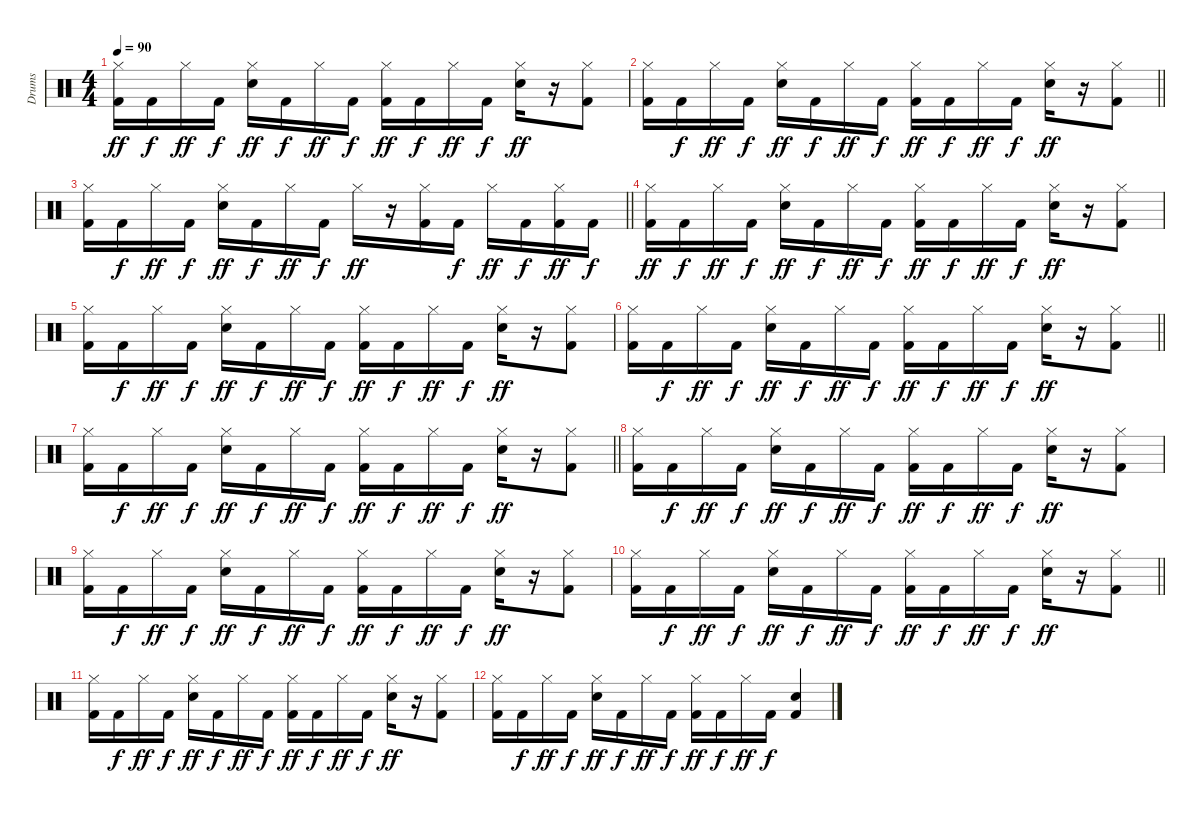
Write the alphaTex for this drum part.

\track ("Drums" "Drums") {instrument percussion}
\staff {score}
\articulation defaults
\ts (4 4)
\tempo 90
\clef neutral
\ks c
("Hi-Hat (closed)" "Kick (hit) 2").16{dy ff} "Kick (hit) 2".16{dy f} "Hi-Hat (closed)".16{dy ff} "Kick (hit) 2".16{dy f} ("Hi-Hat (closed)" "Electric Snare (hit)").16{dy ff} "Kick (hit) 2".16{dy f} "Hi-Hat (closed)".16{dy ff} "Kick (hit) 2".16{dy f} ("Hi-Hat (closed)" "Kick (hit) 2").16{dy ff} "Kick (hit) 2".16{dy f} "Hi-Hat (closed)".16{dy ff} "Kick (hit) 2".16{dy f} ("Hi-Hat (closed)" "Electric Snare (hit)").16{dy ff} r.16 ("Hi-Hat (closed)" "Kick (hit) 2").8 |
\barLineRight lightlight
("Hi-Hat (closed)" "Kick (hit) 2").16 "Kick (hit) 2".16{dy f} "Hi-Hat (closed)".16{dy ff} "Kick (hit) 2".16{dy f} ("Hi-Hat (closed)" "Electric Snare (hit)").16{dy ff} "Kick (hit) 2".16{dy f} "Hi-Hat (closed)".16{dy ff} "Kick (hit) 2".16{dy f} ("Hi-Hat (closed)" "Kick (hit) 2").16{dy ff} "Kick (hit) 2".16{dy f} "Hi-Hat (closed)".16{dy ff} "Kick (hit) 2".16{dy f} ("Hi-Hat (closed)" "Electric Snare (hit)").16{dy ff} r.16 ("Hi-Hat (closed)" "Kick (hit) 2").8 |
\barLineRight lightlight
("Hi-Hat (closed)" "Kick (hit) 2").16 "Kick (hit) 2".16{dy f} "Hi-Hat (closed)".16{dy ff} "Kick (hit) 2".16{dy f} ("Hi-Hat (closed)" "Electric Snare (hit)").16{dy ff} "Kick (hit) 2".16{dy f} "Hi-Hat (closed)".16{dy ff} "Kick (hit) 2".16{dy f} "Hi-Hat (closed)".16{dy ff} r.16 ("Hi-Hat (closed)" "Kick (hit) 2").16 "Kick (hit) 2".16{dy f} "Hi-Hat (closed)".16{dy ff} "Kick (hit) 2".16{dy f} ("Hi-Hat (closed)" "Kick (hit) 2").16{dy ff} "Kick (hit) 2".16{dy f} |
("Hi-Hat (closed)" "Kick (hit) 2").16{dy ff} "Kick (hit) 2".16{dy f} "Hi-Hat (closed)".16{dy ff} "Kick (hit) 2".16{dy f} ("Hi-Hat (closed)" "Electric Snare (hit)").16{dy ff} "Kick (hit) 2".16{dy f} "Hi-Hat (closed)".16{dy ff} "Kick (hit) 2".16{dy f} ("Hi-Hat (closed)" "Kick (hit) 2").16{dy ff} "Kick (hit) 2".16{dy f} "Hi-Hat (closed)".16{dy ff} "Kick (hit) 2".16{dy f} ("Hi-Hat (closed)" "Electric Snare (hit)").16{dy ff} r.16 ("Hi-Hat (closed)" "Kick (hit) 2").8 |
("Hi-Hat (closed)" "Kick (hit) 2").16 "Kick (hit) 2".16{dy f} "Hi-Hat (closed)".16{dy ff} "Kick (hit) 2".16{dy f} ("Hi-Hat (closed)" "Electric Snare (hit)").16{dy ff} "Kick (hit) 2".16{dy f} "Hi-Hat (closed)".16{dy ff} "Kick (hit) 2".16{dy f} ("Hi-Hat (closed)" "Kick (hit) 2").16{dy ff} "Kick (hit) 2".16{dy f} "Hi-Hat (closed)".16{dy ff} "Kick (hit) 2".16{dy f} ("Hi-Hat (closed)" "Electric Snare (hit)").16{dy ff} r.16 ("Hi-Hat (closed)" "Kick (hit) 2").8 |
\barLineRight lightlight
("Hi-Hat (closed)" "Kick (hit) 2").16 "Kick (hit) 2".16{dy f} "Hi-Hat (closed)".16{dy ff} "Kick (hit) 2".16{dy f} ("Hi-Hat (closed)" "Electric Snare (hit)").16{dy ff} "Kick (hit) 2".16{dy f} "Hi-Hat (closed)".16{dy ff} "Kick (hit) 2".16{dy f} ("Hi-Hat (closed)" "Kick (hit) 2").16{dy ff} "Kick (hit) 2".16{dy f} "Hi-Hat (closed)".16{dy ff} "Kick (hit) 2".16{dy f} ("Hi-Hat (closed)" "Electric Snare (hit)").16{dy ff} r.16 ("Hi-Hat (closed)" "Kick (hit) 2").8 |
\barLineRight lightlight
("Hi-Hat (closed)" "Kick (hit) 2").16 "Kick (hit) 2".16{dy f} "Hi-Hat (closed)".16{dy ff} "Kick (hit) 2".16{dy f} ("Hi-Hat (closed)" "Electric Snare (hit)").16{dy ff} "Kick (hit) 2".16{dy f} "Hi-Hat (closed)".16{dy ff} "Kick (hit) 2".16{dy f} ("Hi-Hat (closed)" "Kick (hit) 2").16{dy ff} "Kick (hit) 2".16{dy f} "Hi-Hat (closed)".16{dy ff} "Kick (hit) 2".16{dy f} ("Hi-Hat (closed)" "Electric Snare (hit)").16{dy ff} r.16 ("Hi-Hat (closed)" "Kick (hit) 2").8 |
("Hi-Hat (closed)" "Kick (hit) 2").16 "Kick (hit) 2".16{dy f} "Hi-Hat (closed)".16{dy ff} "Kick (hit) 2".16{dy f} ("Hi-Hat (closed)" "Electric Snare (hit)").16{dy ff} "Kick (hit) 2".16{dy f} "Hi-Hat (closed)".16{dy ff} "Kick (hit) 2".16{dy f} ("Hi-Hat (closed)" "Kick (hit) 2").16{dy ff} "Kick (hit) 2".16{dy f} "Hi-Hat (closed)".16{dy ff} "Kick (hit) 2".16{dy f} ("Hi-Hat (closed)" "Electric Snare (hit)").16{dy ff} r.16 ("Hi-Hat (closed)" "Kick (hit) 2").8 |
("Hi-Hat (closed)" "Kick (hit) 2").16 "Kick (hit) 2".16{dy f} "Hi-Hat (closed)".16{dy ff} "Kick (hit) 2".16{dy f} ("Hi-Hat (closed)" "Electric Snare (hit)").16{dy ff} "Kick (hit) 2".16{dy f} "Hi-Hat (closed)".16{dy ff} "Kick (hit) 2".16{dy f} ("Hi-Hat (closed)" "Kick (hit) 2").16{dy ff} "Kick (hit) 2".16{dy f} "Hi-Hat (closed)".16{dy ff} "Kick (hit) 2".16{dy f} ("Hi-Hat (closed)" "Electric Snare (hit)").16{dy ff} r.16 ("Hi-Hat (closed)" "Kick (hit) 2").8 |
\barLineRight lightlight
("Hi-Hat (closed)" "Kick (hit) 2").16 "Kick (hit) 2".16{dy f} "Hi-Hat (closed)".16{dy ff} "Kick (hit) 2".16{dy f} ("Hi-Hat (closed)" "Electric Snare (hit)").16{dy ff} "Kick (hit) 2".16{dy f} "Hi-Hat (closed)".16{dy ff} "Kick (hit) 2".16{dy f} ("Hi-Hat (closed)" "Kick (hit) 2").16{dy ff} "Kick (hit) 2".16{dy f} "Hi-Hat (closed)".16{dy ff} "Kick (hit) 2".16{dy f} ("Hi-Hat (closed)" "Electric Snare (hit)").16{dy ff} r.16 ("Hi-Hat (closed)" "Kick (hit) 2").8 |
("Hi-Hat (closed)" "Kick (hit) 2").16 "Kick (hit) 2".16{dy f} "Hi-Hat (closed)".16{dy ff} "Kick (hit) 2".16{dy f} ("Hi-Hat (closed)" "Electric Snare (hit)").16{dy ff} "Kick (hit) 2".16{dy f} "Hi-Hat (closed)".16{dy ff} "Kick (hit) 2".16{dy f} ("Hi-Hat (closed)" "Kick (hit) 2").16{dy ff} "Kick (hit) 2".16{dy f} "Hi-Hat (closed)".16{dy ff} "Kick (hit) 2".16{dy f} ("Hi-Hat (closed)" "Electric Snare (hit)").16{dy ff} r.16 ("Hi-Hat (closed)" "Kick (hit) 2").8 |
("Hi-Hat (closed)" "Kick (hit) 2").16 "Kick (hit) 2".16{dy f} "Hi-Hat (closed)".16{dy ff} "Kick (hit) 2".16{dy f} ("Hi-Hat (closed)" "Electric Snare (hit)").16{dy ff} "Kick (hit) 2".16{dy f} "Hi-Hat (closed)".16{dy ff} "Kick (hit) 2".16{dy f} ("Hi-Hat (closed)" "Kick (hit) 2").16{dy ff} "Kick (hit) 2".16{dy f} "Hi-Hat (closed)".16{dy ff} "Kick (hit) 2".16{dy f} ("Kick (hit) 2" "Electric Snare (hit)").4
